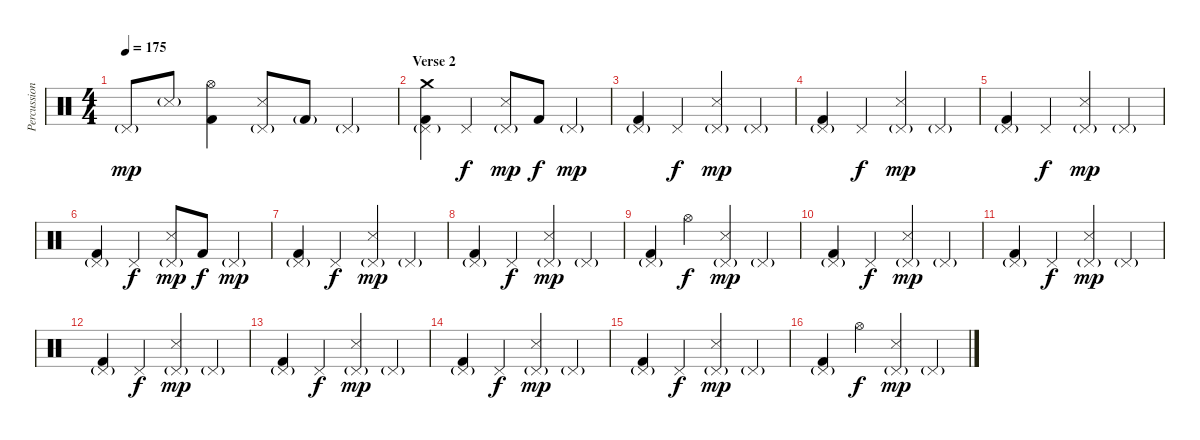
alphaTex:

\track ("Percussion" "Percussion") {instrument percussion}
\staff {score}
\articulation defaults
\ts (4 4)
\tempo 175
\clef neutral
\ks c "Pedal Hi-Hat (hit)"{g}.8{dy mp} "Snare (side stick) 3"{g}.8
("Hi-Hat (open)" "Kick (hit) 2").4 ("Pedal Hi-Hat (hit)"{g} "Snare (side stick) 3").8 "Kick (hit) 2"{g}.8 "Pedal Hi-Hat (hit)"{g}.4 |
\section ("" "Verse 2")
("Crash medium (hit)" "Pedal Hi-Hat (hit)"{g} "Kick (hit) 2").4 "Pedal Hi-Hat (hit)".4{dy f} ("Pedal Hi-Hat (hit)"{g} "Snare (side stick) 3").8{dy mp} "Kick (hit) 2".8{dy f} "Pedal Hi-Hat (hit)"{g}.4{dy mp} |
("Pedal Hi-Hat (hit)"{g} "Kick (hit) 2").4 "Pedal Hi-Hat (hit)".4{dy f} ("Pedal Hi-Hat (hit)"{g} "Snare (side stick) 3").4{dy mp} "Pedal Hi-Hat (hit)"{g}.4 |
("Pedal Hi-Hat (hit)"{g} "Kick (hit) 2").4 "Pedal Hi-Hat (hit)".4{dy f} ("Pedal Hi-Hat (hit)"{g} "Snare (side stick) 3").4{dy mp} "Pedal Hi-Hat (hit)"{g}.4 |
("Pedal Hi-Hat (hit)"{g} "Kick (hit) 2").4 "Pedal Hi-Hat (hit)".4{dy f} ("Pedal Hi-Hat (hit)"{g} "Snare (side stick) 3").4{dy mp} "Pedal Hi-Hat (hit)"{g}.4 |
("Pedal Hi-Hat (hit)"{g} "Kick (hit) 2").4 "Pedal Hi-Hat (hit)".4{dy f} ("Pedal Hi-Hat (hit)"{g} "Snare (side stick) 3").8{dy mp} "Kick (hit) 2".8{dy f} "Pedal Hi-Hat (hit)"{g}.4{dy mp} |
("Pedal Hi-Hat (hit)"{g} "Kick (hit) 2").4 "Pedal Hi-Hat (hit)".4{dy f} ("Pedal Hi-Hat (hit)"{g} "Snare (side stick) 3").4{dy mp} "Pedal Hi-Hat (hit)"{g}.4 |
("Pedal Hi-Hat (hit)"{g} "Kick (hit) 2").4 "Pedal Hi-Hat (hit)".4{dy f} ("Pedal Hi-Hat (hit)"{g} "Snare (side stick) 3").4{dy mp} "Pedal Hi-Hat (hit)"{g}.4 |
("Pedal Hi-Hat (hit)"{g} "Kick (hit) 2").4 "Hi-Hat (open)".4{dy f} ("Pedal Hi-Hat (hit)"{g} "Snare (side stick) 3").4{dy mp} "Pedal Hi-Hat (hit)"{g}.4 |
("Pedal Hi-Hat (hit)"{g} "Kick (hit) 2").4 "Pedal Hi-Hat (hit)".4{dy f} ("Pedal Hi-Hat (hit)"{g} "Snare (side stick) 3").4{dy mp} "Pedal Hi-Hat (hit)"{g}.4 |
("Pedal Hi-Hat (hit)"{g} "Kick (hit) 2").4 "Pedal Hi-Hat (hit)".4{dy f} ("Pedal Hi-Hat (hit)"{g} "Snare (side stick) 3").4{dy mp} "Pedal Hi-Hat (hit)"{g}.4 |
("Pedal Hi-Hat (hit)"{g} "Kick (hit) 2").4 "Pedal Hi-Hat (hit)".4{dy f} ("Pedal Hi-Hat (hit)"{g} "Snare (side stick) 3").4{dy mp} "Pedal Hi-Hat (hit)"{g}.4 |
("Pedal Hi-Hat (hit)"{g} "Kick (hit) 2").4 "Pedal Hi-Hat (hit)".4{dy f} ("Pedal Hi-Hat (hit)"{g} "Snare (side stick) 3").4{dy mp} "Pedal Hi-Hat (hit)"{g}.4 |
("Pedal Hi-Hat (hit)"{g} "Kick (hit) 2").4 "Pedal Hi-Hat (hit)".4{dy f} ("Pedal Hi-Hat (hit)"{g} "Snare (side stick) 3").4{dy mp} "Pedal Hi-Hat (hit)"{g}.4 |
("Pedal Hi-Hat (hit)"{g} "Kick (hit) 2").4 "Pedal Hi-Hat (hit)".4{dy f} ("Pedal Hi-Hat (hit)"{g} "Snare (side stick) 3").4{dy mp} "Pedal Hi-Hat (hit)"{g}.4 |
("Pedal Hi-Hat (hit)"{g} "Kick (hit) 2").4 "Hi-Hat (open)".4{dy f} ("Pedal Hi-Hat (hit)"{g} "Snare (side stick) 3").4{dy mp} "Pedal Hi-Hat (hit)"{g}.4
